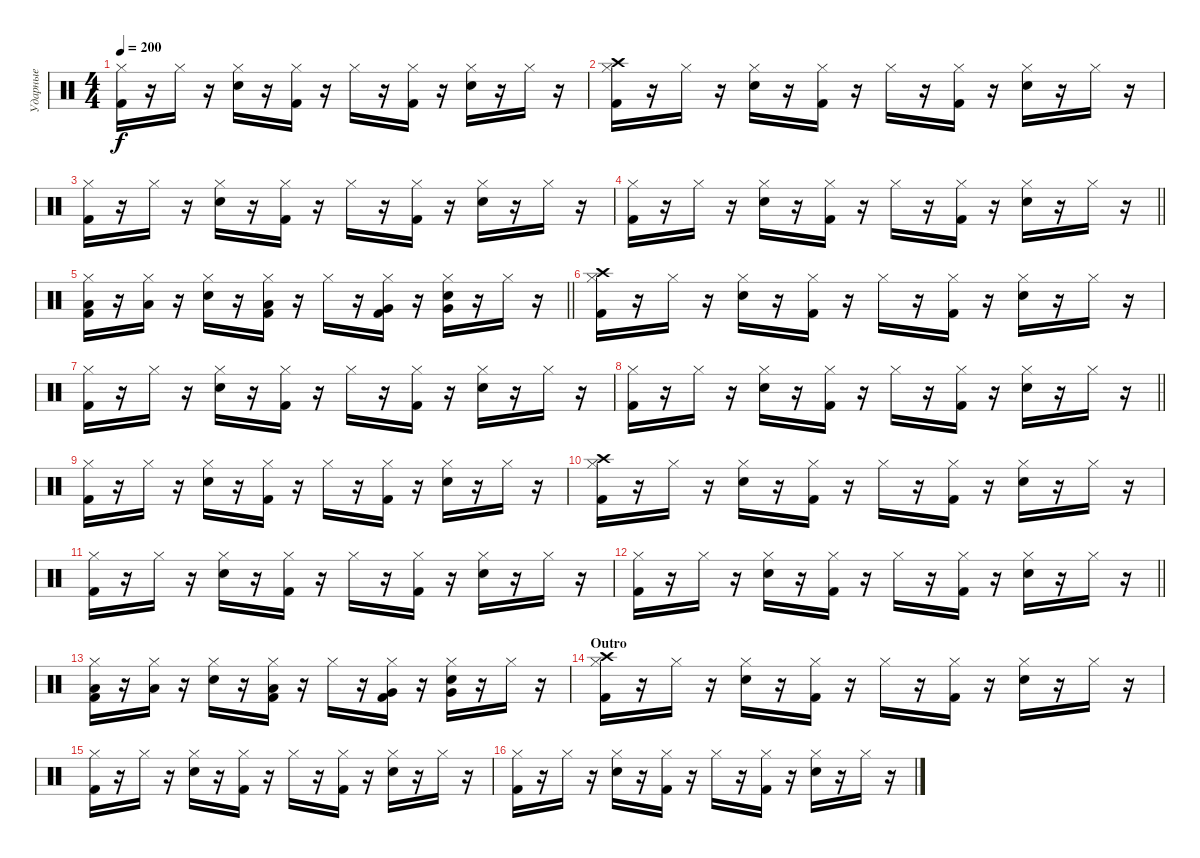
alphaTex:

\track ("Ударные" "Ударные") {instrument percussion}
\staff {score}
\articulation defaults
\ts (4 4)
\tempo 200
\clef neutral
\ks c
("Kick (hit) 2" "Hi-Hat (closed)").16{dy f} r.16 "Hi-Hat (closed)".16 r.16 ("Snare (hit) 2" "Hi-Hat (closed)").16 r.16 ("Kick (hit) 2" "Hi-Hat (closed)").16 r.16 "Hi-Hat (closed)".16 r.16 ("Kick (hit) 2" "Hi-Hat (closed)").16 r.16 ("Snare (hit) 2" "Hi-Hat (closed)").16 r.16 "Hi-Hat (closed)".16 r.16 |
("Kick (hit) 2" "Crash high (hit)" "Hi-Hat (closed)").16 r.16 "Hi-Hat (closed)".16 r.16 ("Snare (hit) 2" "Hi-Hat (closed)").16 r.16 ("Kick (hit) 2" "Hi-Hat (closed)").16 r.16 "Hi-Hat (closed)".16 r.16 ("Kick (hit) 2" "Hi-Hat (closed)").16 r.16 ("Snare (hit) 2" "Hi-Hat (closed)").16 r.16 "Hi-Hat (closed)".16 r.16 |
("Kick (hit) 2" "Hi-Hat (closed)").16 r.16 "Hi-Hat (closed)".16 r.16 ("Snare (hit) 2" "Hi-Hat (closed)").16 r.16 ("Kick (hit) 2" "Hi-Hat (closed)").16 r.16 "Hi-Hat (closed)".16 r.16 ("Kick (hit) 2" "Hi-Hat (closed)").16 r.16 ("Snare (hit) 2" "Hi-Hat (closed)").16 r.16 "Hi-Hat (closed)".16 r.16 |
\barLineRight lightlight
("Kick (hit) 2" "Hi-Hat (closed)").16 r.16 "Hi-Hat (closed)".16 r.16 ("Snare (hit) 2" "Hi-Hat (closed)").16 r.16 ("Kick (hit) 2" "Hi-Hat (closed)").16 r.16 "Hi-Hat (closed)".16 r.16 ("Kick (hit) 2" "Hi-Hat (closed)").16 r.16 ("Snare (hit) 2" "Hi-Hat (closed)").16 r.16 "Hi-Hat (closed)".16 r.16 |
\barLineRight lightlight
("Kick (hit) 2" "Low Floor Tom (hit)" "Hi-Hat (closed)").16 r.16 ("Low Floor Tom (hit)" "Hi-Hat (closed)").16 r.16 ("Snare (hit) 2" "Hi-Hat (closed)").16 r.16 ("Kick (hit) 2" "Low Floor Tom (hit)" "Hi-Hat (closed)").16 r.16 "Hi-Hat (closed)".16 r.16 ("Kick (hit) 2" "Very Low Tom (hit)" "Hi-Hat (closed)").16 r.16 ("Snare (hit) 2" "Very Low Tom (hit)" "Hi-Hat (closed)").16 r.16 "Hi-Hat (closed)".16 r.16 |
("Kick (hit) 2" "Crash high (hit)" "Hi-Hat (closed)").16 r.16 "Hi-Hat (closed)".16 r.16 ("Snare (hit) 2" "Hi-Hat (closed)").16 r.16 ("Kick (hit) 2" "Hi-Hat (closed)").16 r.16 "Hi-Hat (closed)".16 r.16 ("Kick (hit) 2" "Hi-Hat (closed)").16 r.16 ("Snare (hit) 2" "Hi-Hat (closed)").16 r.16 "Hi-Hat (closed)".16 r.16 |
("Kick (hit) 2" "Hi-Hat (closed)").16 r.16 "Hi-Hat (closed)".16 r.16 ("Snare (hit) 2" "Hi-Hat (closed)").16 r.16 ("Kick (hit) 2" "Hi-Hat (closed)").16 r.16 "Hi-Hat (closed)".16 r.16 ("Kick (hit) 2" "Hi-Hat (closed)").16 r.16 ("Snare (hit) 2" "Hi-Hat (closed)").16 r.16 "Hi-Hat (closed)".16 r.16 |
\barLineRight lightlight
("Kick (hit) 2" "Hi-Hat (closed)").16 r.16 "Hi-Hat (closed)".16 r.16 ("Snare (hit) 2" "Hi-Hat (closed)").16 r.16 ("Kick (hit) 2" "Hi-Hat (closed)").16 r.16 "Hi-Hat (closed)".16 r.16 ("Kick (hit) 2" "Hi-Hat (closed)").16 r.16 ("Snare (hit) 2" "Hi-Hat (closed)").16 r.16 "Hi-Hat (closed)".16 r.16 |
("Kick (hit) 2" "Hi-Hat (closed)").16 r.16 "Hi-Hat (closed)".16 r.16 ("Snare (hit) 2" "Hi-Hat (closed)").16 r.16 ("Kick (hit) 2" "Hi-Hat (closed)").16 r.16 "Hi-Hat (closed)".16 r.16 ("Kick (hit) 2" "Hi-Hat (closed)").16 r.16 ("Snare (hit) 2" "Hi-Hat (closed)").16 r.16 "Hi-Hat (closed)".16 r.16 |
("Kick (hit) 2" "Crash high (hit)" "Hi-Hat (closed)").16 r.16 "Hi-Hat (closed)".16 r.16 ("Snare (hit) 2" "Hi-Hat (closed)").16 r.16 ("Kick (hit) 2" "Hi-Hat (closed)").16 r.16 "Hi-Hat (closed)".16 r.16 ("Kick (hit) 2" "Hi-Hat (closed)").16 r.16 ("Snare (hit) 2" "Hi-Hat (closed)").16 r.16 "Hi-Hat (closed)".16 r.16 |
("Kick (hit) 2" "Hi-Hat (closed)").16 r.16 "Hi-Hat (closed)".16 r.16 ("Snare (hit) 2" "Hi-Hat (closed)").16 r.16 ("Kick (hit) 2" "Hi-Hat (closed)").16 r.16 "Hi-Hat (closed)".16 r.16 ("Kick (hit) 2" "Hi-Hat (closed)").16 r.16 ("Snare (hit) 2" "Hi-Hat (closed)").16 r.16 "Hi-Hat (closed)".16 r.16 |
\barLineRight lightlight
("Kick (hit) 2" "Hi-Hat (closed)").16 r.16 "Hi-Hat (closed)".16 r.16 ("Snare (hit) 2" "Hi-Hat (closed)").16 r.16 ("Kick (hit) 2" "Hi-Hat (closed)").16 r.16 "Hi-Hat (closed)".16 r.16 ("Kick (hit) 2" "Hi-Hat (closed)").16 r.16 ("Snare (hit) 2" "Hi-Hat (closed)").16 r.16 "Hi-Hat (closed)".16 r.16 |
("Kick (hit) 2" "Low Floor Tom (hit)" "Hi-Hat (closed)").16 r.16 ("Low Floor Tom (hit)" "Hi-Hat (closed)").16 r.16 ("Snare (hit) 2" "Hi-Hat (closed)").16 r.16 ("Kick (hit) 2" "Low Floor Tom (hit)" "Hi-Hat (closed)").16 r.16 "Hi-Hat (closed)".16 r.16 ("Kick (hit) 2" "Very Low Tom (hit)" "Hi-Hat (closed)").16 r.16 ("Snare (hit) 2" "Very Low Tom (hit)" "Hi-Hat (closed)").16 r.16 "Hi-Hat (closed)".16 r.16 |
\section ("" "Outro")
("Kick (hit) 2" "Crash high (hit)" "Hi-Hat (closed)").16 r.16 "Hi-Hat (closed)".16 r.16 ("Snare (hit) 2" "Hi-Hat (closed)").16 r.16 ("Kick (hit) 2" "Hi-Hat (closed)").16 r.16 "Hi-Hat (closed)".16 r.16 ("Kick (hit) 2" "Hi-Hat (closed)").16 r.16 ("Snare (hit) 2" "Hi-Hat (closed)").16 r.16 "Hi-Hat (closed)".16 r.16 |
("Kick (hit) 2" "Hi-Hat (closed)").16 r.16 "Hi-Hat (closed)".16 r.16 ("Snare (hit) 2" "Hi-Hat (closed)").16 r.16 ("Kick (hit) 2" "Hi-Hat (closed)").16 r.16 "Hi-Hat (closed)".16 r.16 ("Kick (hit) 2" "Hi-Hat (closed)").16 r.16 ("Snare (hit) 2" "Hi-Hat (closed)").16 r.16 "Hi-Hat (closed)".16 r.16 |
("Kick (hit) 2" "Hi-Hat (closed)").16 r.16 "Hi-Hat (closed)".16 r.16 ("Snare (hit) 2" "Hi-Hat (closed)").16 r.16 ("Kick (hit) 2" "Hi-Hat (closed)").16 r.16 "Hi-Hat (closed)".16 r.16 ("Kick (hit) 2" "Hi-Hat (closed)").16 r.16 ("Snare (hit) 2" "Hi-Hat (closed)").16 r.16 "Hi-Hat (closed)".16 r.16
